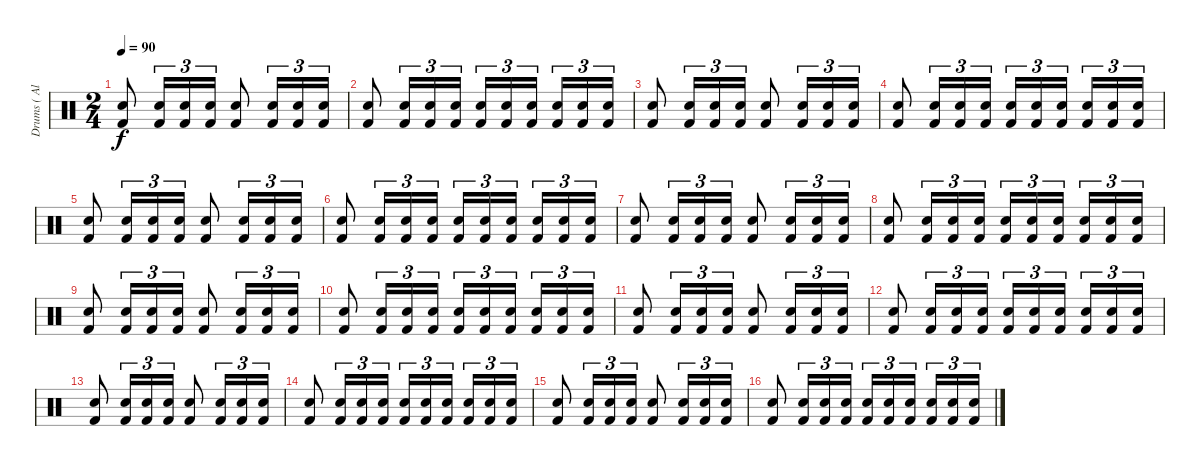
\track ("Drums ( Alex Holzwarth)" "Drums ( Al") {instrument percussion}
\staff {score}
\articulation defaults
\ts (2 4)
\tempo 90
\clef neutral
\ks c
("Snare (hit) 2" "Kick (hit) 2").8{dy f} ("Snare (hit) 2" "Kick (hit) 2").16{tu (3 2)} ("Snare (hit) 2" "Kick (hit) 2").16{tu (3 2)} ("Snare (hit) 2" "Kick (hit) 2").16{tu (3 2)} ("Snare (hit) 2" "Kick (hit) 2").8 ("Snare (hit) 2" "Kick (hit) 2").16{tu (3 2)} ("Snare (hit) 2" "Kick (hit) 2").16{tu (3 2)} ("Snare (hit) 2" "Kick (hit) 2").16{tu (3 2)} |
("Snare (hit) 2" "Kick (hit) 2").8 ("Snare (hit) 2" "Kick (hit) 2").16{tu (3 2)} ("Snare (hit) 2" "Kick (hit) 2").16{tu (3 2)} ("Snare (hit) 2" "Kick (hit) 2").16{tu (3 2)} ("Snare (hit) 2" "Kick (hit) 2").16{tu (3 2)} ("Snare (hit) 2" "Kick (hit) 2").16{tu (3 2)} ("Snare (hit) 2" "Kick (hit) 2").16{tu (3 2)} ("Snare (hit) 2" "Kick (hit) 2").16{tu (3 2)} ("Snare (hit) 2" "Kick (hit) 2").16{tu (3 2)} ("Snare (hit) 2" "Kick (hit) 2").16{tu (3 2)} |
("Snare (hit) 2" "Kick (hit) 2").8 ("Snare (hit) 2" "Kick (hit) 2").16{tu (3 2)} ("Snare (hit) 2" "Kick (hit) 2").16{tu (3 2)} ("Snare (hit) 2" "Kick (hit) 2").16{tu (3 2)} ("Snare (hit) 2" "Kick (hit) 2").8 ("Snare (hit) 2" "Kick (hit) 2").16{tu (3 2)} ("Snare (hit) 2" "Kick (hit) 2").16{tu (3 2)} ("Snare (hit) 2" "Kick (hit) 2").16{tu (3 2)} |
("Snare (hit) 2" "Kick (hit) 2").8 ("Snare (hit) 2" "Kick (hit) 2").16{tu (3 2)} ("Snare (hit) 2" "Kick (hit) 2").16{tu (3 2)} ("Snare (hit) 2" "Kick (hit) 2").16{tu (3 2)} ("Snare (hit) 2" "Kick (hit) 2").16{tu (3 2)} ("Snare (hit) 2" "Kick (hit) 2").16{tu (3 2)} ("Snare (hit) 2" "Kick (hit) 2").16{tu (3 2)} ("Snare (hit) 2" "Kick (hit) 2").16{tu (3 2)} ("Snare (hit) 2" "Kick (hit) 2").16{tu (3 2)} ("Snare (hit) 2" "Kick (hit) 2").16{tu (3 2)} |
("Snare (hit) 2" "Kick (hit) 2").8 ("Snare (hit) 2" "Kick (hit) 2").16{tu (3 2)} ("Snare (hit) 2" "Kick (hit) 2").16{tu (3 2)} ("Snare (hit) 2" "Kick (hit) 2").16{tu (3 2)} ("Snare (hit) 2" "Kick (hit) 2").8 ("Snare (hit) 2" "Kick (hit) 2").16{tu (3 2)} ("Snare (hit) 2" "Kick (hit) 2").16{tu (3 2)} ("Snare (hit) 2" "Kick (hit) 2").16{tu (3 2)} |
("Snare (hit) 2" "Kick (hit) 2").8 ("Snare (hit) 2" "Kick (hit) 2").16{tu (3 2)} ("Snare (hit) 2" "Kick (hit) 2").16{tu (3 2)} ("Snare (hit) 2" "Kick (hit) 2").16{tu (3 2)} ("Snare (hit) 2" "Kick (hit) 2").16{tu (3 2)} ("Snare (hit) 2" "Kick (hit) 2").16{tu (3 2)} ("Snare (hit) 2" "Kick (hit) 2").16{tu (3 2)} ("Snare (hit) 2" "Kick (hit) 2").16{tu (3 2)} ("Snare (hit) 2" "Kick (hit) 2").16{tu (3 2)} ("Snare (hit) 2" "Kick (hit) 2").16{tu (3 2)} |
("Snare (hit) 2" "Kick (hit) 2").8 ("Snare (hit) 2" "Kick (hit) 2").16{tu (3 2)} ("Snare (hit) 2" "Kick (hit) 2").16{tu (3 2)} ("Snare (hit) 2" "Kick (hit) 2").16{tu (3 2)} ("Snare (hit) 2" "Kick (hit) 2").8 ("Snare (hit) 2" "Kick (hit) 2").16{tu (3 2)} ("Snare (hit) 2" "Kick (hit) 2").16{tu (3 2)} ("Snare (hit) 2" "Kick (hit) 2").16{tu (3 2)} |
("Snare (hit) 2" "Kick (hit) 2").8 ("Snare (hit) 2" "Kick (hit) 2").16{tu (3 2)} ("Snare (hit) 2" "Kick (hit) 2").16{tu (3 2)} ("Snare (hit) 2" "Kick (hit) 2").16{tu (3 2)} ("Snare (hit) 2" "Kick (hit) 2").16{tu (3 2)} ("Snare (hit) 2" "Kick (hit) 2").16{tu (3 2)} ("Snare (hit) 2" "Kick (hit) 2").16{tu (3 2)} ("Snare (hit) 2" "Kick (hit) 2").16{tu (3 2)} ("Snare (hit) 2" "Kick (hit) 2").16{tu (3 2)} ("Snare (hit) 2" "Kick (hit) 2").16{tu (3 2)} |
("Snare (hit) 2" "Kick (hit) 2").8 ("Snare (hit) 2" "Kick (hit) 2").16{tu (3 2)} ("Snare (hit) 2" "Kick (hit) 2").16{tu (3 2)} ("Snare (hit) 2" "Kick (hit) 2").16{tu (3 2)} ("Snare (hit) 2" "Kick (hit) 2").8 ("Snare (hit) 2" "Kick (hit) 2").16{tu (3 2)} ("Snare (hit) 2" "Kick (hit) 2").16{tu (3 2)} ("Snare (hit) 2" "Kick (hit) 2").16{tu (3 2)} |
("Snare (hit) 2" "Kick (hit) 2").8 ("Snare (hit) 2" "Kick (hit) 2").16{tu (3 2)} ("Snare (hit) 2" "Kick (hit) 2").16{tu (3 2)} ("Snare (hit) 2" "Kick (hit) 2").16{tu (3 2)} ("Snare (hit) 2" "Kick (hit) 2").16{tu (3 2)} ("Snare (hit) 2" "Kick (hit) 2").16{tu (3 2)} ("Snare (hit) 2" "Kick (hit) 2").16{tu (3 2)} ("Snare (hit) 2" "Kick (hit) 2").16{tu (3 2)} ("Snare (hit) 2" "Kick (hit) 2").16{tu (3 2)} ("Snare (hit) 2" "Kick (hit) 2").16{tu (3 2)} |
("Snare (hit) 2" "Kick (hit) 2").8 ("Snare (hit) 2" "Kick (hit) 2").16{tu (3 2)} ("Snare (hit) 2" "Kick (hit) 2").16{tu (3 2)} ("Snare (hit) 2" "Kick (hit) 2").16{tu (3 2)} ("Snare (hit) 2" "Kick (hit) 2").8 ("Snare (hit) 2" "Kick (hit) 2").16{tu (3 2)} ("Snare (hit) 2" "Kick (hit) 2").16{tu (3 2)} ("Snare (hit) 2" "Kick (hit) 2").16{tu (3 2)} |
("Snare (hit) 2" "Kick (hit) 2").8 ("Snare (hit) 2" "Kick (hit) 2").16{tu (3 2)} ("Snare (hit) 2" "Kick (hit) 2").16{tu (3 2)} ("Snare (hit) 2" "Kick (hit) 2").16{tu (3 2)} ("Snare (hit) 2" "Kick (hit) 2").16{tu (3 2)} ("Snare (hit) 2" "Kick (hit) 2").16{tu (3 2)} ("Snare (hit) 2" "Kick (hit) 2").16{tu (3 2)} ("Snare (hit) 2" "Kick (hit) 2").16{tu (3 2)} ("Snare (hit) 2" "Kick (hit) 2").16{tu (3 2)} ("Snare (hit) 2" "Kick (hit) 2").16{tu (3 2)} |
("Snare (hit) 2" "Kick (hit) 2").8 ("Snare (hit) 2" "Kick (hit) 2").16{tu (3 2)} ("Snare (hit) 2" "Kick (hit) 2").16{tu (3 2)} ("Snare (hit) 2" "Kick (hit) 2").16{tu (3 2)} ("Snare (hit) 2" "Kick (hit) 2").8 ("Snare (hit) 2" "Kick (hit) 2").16{tu (3 2)} ("Snare (hit) 2" "Kick (hit) 2").16{tu (3 2)} ("Snare (hit) 2" "Kick (hit) 2").16{tu (3 2)} |
("Snare (hit) 2" "Kick (hit) 2").8 ("Snare (hit) 2" "Kick (hit) 2").16{tu (3 2)} ("Snare (hit) 2" "Kick (hit) 2").16{tu (3 2)} ("Snare (hit) 2" "Kick (hit) 2").16{tu (3 2)} ("Snare (hit) 2" "Kick (hit) 2").16{tu (3 2)} ("Snare (hit) 2" "Kick (hit) 2").16{tu (3 2)} ("Snare (hit) 2" "Kick (hit) 2").16{tu (3 2)} ("Snare (hit) 2" "Kick (hit) 2").16{tu (3 2)} ("Snare (hit) 2" "Kick (hit) 2").16{tu (3 2)} ("Snare (hit) 2" "Kick (hit) 2").16{tu (3 2)} |
("Snare (hit) 2" "Kick (hit) 2").8 ("Snare (hit) 2" "Kick (hit) 2").16{tu (3 2)} ("Snare (hit) 2" "Kick (hit) 2").16{tu (3 2)} ("Snare (hit) 2" "Kick (hit) 2").16{tu (3 2)} ("Snare (hit) 2" "Kick (hit) 2").8 ("Snare (hit) 2" "Kick (hit) 2").16{tu (3 2)} ("Snare (hit) 2" "Kick (hit) 2").16{tu (3 2)} ("Snare (hit) 2" "Kick (hit) 2").16{tu (3 2)} |
("Snare (hit) 2" "Kick (hit) 2").8 ("Snare (hit) 2" "Kick (hit) 2").16{tu (3 2)} ("Snare (hit) 2" "Kick (hit) 2").16{tu (3 2)} ("Snare (hit) 2" "Kick (hit) 2").16{tu (3 2)} ("Snare (hit) 2" "Kick (hit) 2").16{tu (3 2)} ("Snare (hit) 2" "Kick (hit) 2").16{tu (3 2)} ("Snare (hit) 2" "Kick (hit) 2").16{tu (3 2)} ("Snare (hit) 2" "Kick (hit) 2").16{tu (3 2)} ("Snare (hit) 2" "Kick (hit) 2").16{tu (3 2)} ("Snare (hit) 2" "Kick (hit) 2").16{tu (3 2)}
